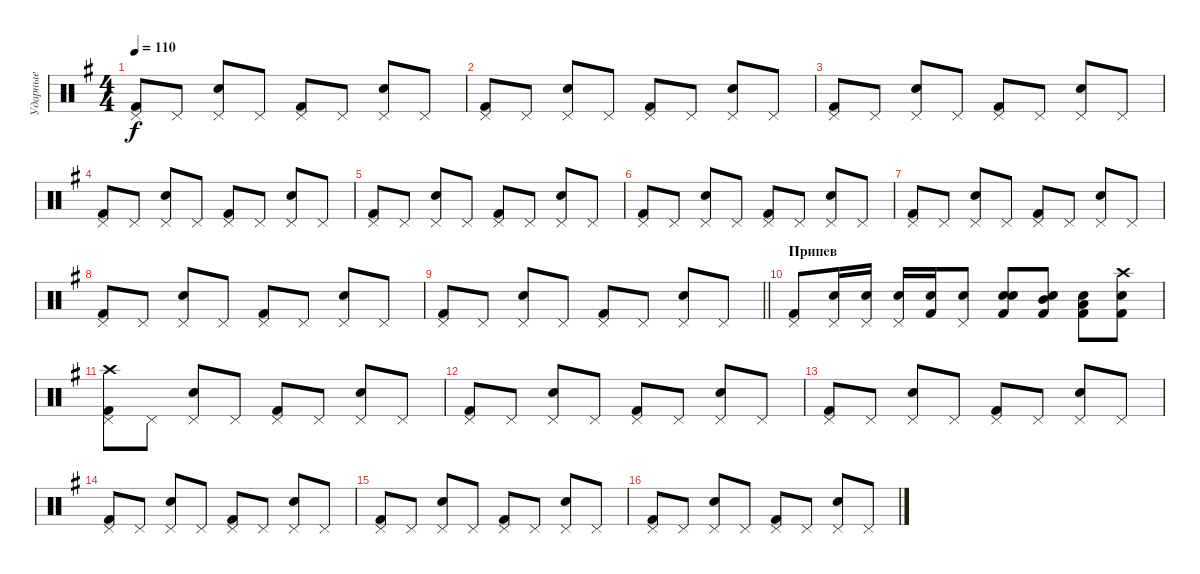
\track ("Ударные" "Ударные") {instrument percussion}
\staff {score}
\articulation defaults
\ts (4 4)
\tempo 110
\clef neutral
\ks eminor
("Kick (hit) 2" "Pedal Hi-Hat (hit)").8{dy f} "Pedal Hi-Hat (hit)".8 ("Snare (hit) 2" "Pedal Hi-Hat (hit)").8 "Pedal Hi-Hat (hit)".8 ("Kick (hit) 2" "Pedal Hi-Hat (hit)").8 "Pedal Hi-Hat (hit)".8 ("Snare (hit) 2" "Pedal Hi-Hat (hit)").8 "Pedal Hi-Hat (hit)".8 |
("Kick (hit) 2" "Pedal Hi-Hat (hit)").8 "Pedal Hi-Hat (hit)".8 ("Snare (hit) 2" "Pedal Hi-Hat (hit)").8 "Pedal Hi-Hat (hit)".8 ("Kick (hit) 2" "Pedal Hi-Hat (hit)").8 "Pedal Hi-Hat (hit)".8 ("Snare (hit) 2" "Pedal Hi-Hat (hit)").8 "Pedal Hi-Hat (hit)".8 |
("Kick (hit) 2" "Pedal Hi-Hat (hit)").8 "Pedal Hi-Hat (hit)".8 ("Snare (hit) 2" "Pedal Hi-Hat (hit)").8 "Pedal Hi-Hat (hit)".8 ("Kick (hit) 2" "Pedal Hi-Hat (hit)").8 "Pedal Hi-Hat (hit)".8 ("Snare (hit) 2" "Pedal Hi-Hat (hit)").8 "Pedal Hi-Hat (hit)".8 |
("Kick (hit) 2" "Pedal Hi-Hat (hit)").8 "Pedal Hi-Hat (hit)".8 ("Snare (hit) 2" "Pedal Hi-Hat (hit)").8 "Pedal Hi-Hat (hit)".8 ("Kick (hit) 2" "Pedal Hi-Hat (hit)").8 "Pedal Hi-Hat (hit)".8 ("Snare (hit) 2" "Pedal Hi-Hat (hit)").8 "Pedal Hi-Hat (hit)".8 |
("Kick (hit) 2" "Pedal Hi-Hat (hit)").8 "Pedal Hi-Hat (hit)".8 ("Snare (hit) 2" "Pedal Hi-Hat (hit)").8 "Pedal Hi-Hat (hit)".8 ("Kick (hit) 2" "Pedal Hi-Hat (hit)").8 "Pedal Hi-Hat (hit)".8 ("Snare (hit) 2" "Pedal Hi-Hat (hit)").8 "Pedal Hi-Hat (hit)".8 |
("Kick (hit) 2" "Pedal Hi-Hat (hit)").8 "Pedal Hi-Hat (hit)".8 ("Snare (hit) 2" "Pedal Hi-Hat (hit)").8 "Pedal Hi-Hat (hit)".8 ("Kick (hit) 2" "Pedal Hi-Hat (hit)").8 "Pedal Hi-Hat (hit)".8 ("Snare (hit) 2" "Pedal Hi-Hat (hit)").8 "Pedal Hi-Hat (hit)".8 |
("Kick (hit) 2" "Pedal Hi-Hat (hit)").8 "Pedal Hi-Hat (hit)".8 ("Snare (hit) 2" "Pedal Hi-Hat (hit)").8 "Pedal Hi-Hat (hit)".8 ("Kick (hit) 2" "Pedal Hi-Hat (hit)").8 "Pedal Hi-Hat (hit)".8 ("Snare (hit) 2" "Pedal Hi-Hat (hit)").8 "Pedal Hi-Hat (hit)".8 |
("Kick (hit) 2" "Pedal Hi-Hat (hit)").8 "Pedal Hi-Hat (hit)".8 ("Snare (hit) 2" "Pedal Hi-Hat (hit)").8 "Pedal Hi-Hat (hit)".8 ("Kick (hit) 2" "Pedal Hi-Hat (hit)").8 "Pedal Hi-Hat (hit)".8 ("Snare (hit) 2" "Pedal Hi-Hat (hit)").8 "Pedal Hi-Hat (hit)".8 |
\barLineRight lightlight
("Kick (hit) 2" "Pedal Hi-Hat (hit)").8 "Pedal Hi-Hat (hit)".8 ("Snare (hit) 2" "Pedal Hi-Hat (hit)").8 "Pedal Hi-Hat (hit)".8 ("Kick (hit) 2" "Pedal Hi-Hat (hit)").8 "Pedal Hi-Hat (hit)".8 ("Snare (hit) 2" "Pedal Hi-Hat (hit)").8 "Pedal Hi-Hat (hit)".8 |
\section ("" "Припев")
("Kick (hit) 2" "Pedal Hi-Hat (hit)").8 ("Pedal Hi-Hat (hit)" "Snare (hit) 2").16 ("Snare (hit) 2" "Pedal Hi-Hat (hit)").16 ("Pedal Hi-Hat (hit)" "Snare (hit) 2").16 ("Kick (hit) 2" "Snare (hit) 2").16 ("Snare (hit) 2" "Pedal Hi-Hat (hit)").8 ("Kick (hit) 2" "Snare (hit) 2" "Electric Snare (hit)").8 ("Kick (hit) 2" "Snare (hit) 2" "Mid Tom (hit)").8 ("Snare (hit) 2" "Kick (hit) 2" "Low Tom (hit)").8 ("Kick (hit) 2" "Snare (hit) 2" "Crash high (hit)").8 |
("Kick (hit) 2" "Crash high (hit)" "Pedal Hi-Hat (hit)").8 "Pedal Hi-Hat (hit)".8 ("Snare (hit) 2" "Pedal Hi-Hat (hit)").8 "Pedal Hi-Hat (hit)".8 ("Kick (hit) 2" "Pedal Hi-Hat (hit)").8 "Pedal Hi-Hat (hit)".8 ("Snare (hit) 2" "Pedal Hi-Hat (hit)").8 "Pedal Hi-Hat (hit)".8 |
("Kick (hit) 2" "Pedal Hi-Hat (hit)").8 "Pedal Hi-Hat (hit)".8 ("Snare (hit) 2" "Pedal Hi-Hat (hit)").8 "Pedal Hi-Hat (hit)".8 ("Kick (hit) 2" "Pedal Hi-Hat (hit)").8 "Pedal Hi-Hat (hit)".8 ("Snare (hit) 2" "Pedal Hi-Hat (hit)").8 "Pedal Hi-Hat (hit)".8 |
("Kick (hit) 2" "Pedal Hi-Hat (hit)").8 "Pedal Hi-Hat (hit)".8 ("Snare (hit) 2" "Pedal Hi-Hat (hit)").8 "Pedal Hi-Hat (hit)".8 ("Kick (hit) 2" "Pedal Hi-Hat (hit)").8 "Pedal Hi-Hat (hit)".8 ("Snare (hit) 2" "Pedal Hi-Hat (hit)").8 "Pedal Hi-Hat (hit)".8 |
("Kick (hit) 2" "Pedal Hi-Hat (hit)").8 "Pedal Hi-Hat (hit)".8 ("Snare (hit) 2" "Pedal Hi-Hat (hit)").8 "Pedal Hi-Hat (hit)".8 ("Kick (hit) 2" "Pedal Hi-Hat (hit)").8 "Pedal Hi-Hat (hit)".8 ("Snare (hit) 2" "Pedal Hi-Hat (hit)").8 "Pedal Hi-Hat (hit)".8 |
("Kick (hit) 2" "Pedal Hi-Hat (hit)").8 "Pedal Hi-Hat (hit)".8 ("Snare (hit) 2" "Pedal Hi-Hat (hit)").8 "Pedal Hi-Hat (hit)".8 ("Kick (hit) 2" "Pedal Hi-Hat (hit)").8 "Pedal Hi-Hat (hit)".8 ("Snare (hit) 2" "Pedal Hi-Hat (hit)").8 "Pedal Hi-Hat (hit)".8 |
("Kick (hit) 2" "Pedal Hi-Hat (hit)").8 "Pedal Hi-Hat (hit)".8 ("Snare (hit) 2" "Pedal Hi-Hat (hit)").8 "Pedal Hi-Hat (hit)".8 ("Kick (hit) 2" "Pedal Hi-Hat (hit)").8 "Pedal Hi-Hat (hit)".8 ("Snare (hit) 2" "Pedal Hi-Hat (hit)").8 "Pedal Hi-Hat (hit)".8
